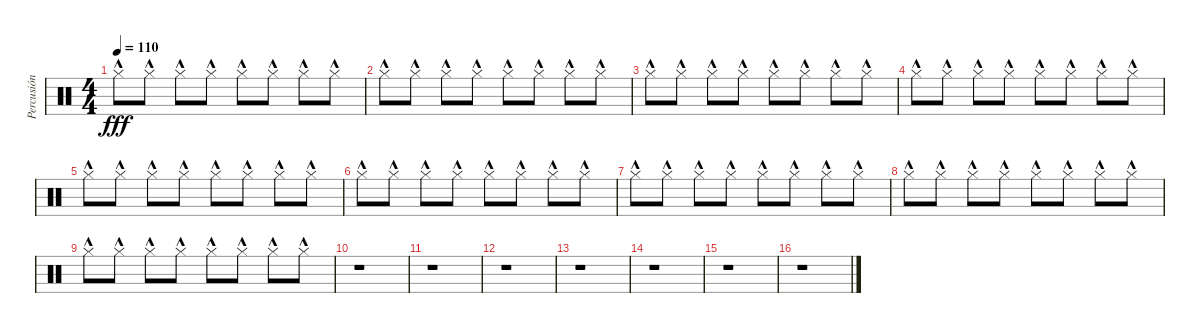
\track ("Percusión" "Percusión") {instrument percussion}
\staff {score}
\articulation defaults
\ts (4 4)
\tempo 110
\clef neutral
\ks c "Hi-Hat (closed)"{hac}.8{dy fff} "Hi-Hat (closed)"{hac}.8 "Hi-Hat (closed)"{hac}.8 "Hi-Hat (closed)"{hac}.8 "Hi-Hat (closed)"{hac}.8 "Hi-Hat (closed)"{hac}.8 "Hi-Hat (closed)"{hac}.8 "Hi-Hat (closed)"{hac}.8
|
"Hi-Hat (closed)"{hac}.8 "Hi-Hat (closed)"{hac}.8 "Hi-Hat (closed)"{hac}.8 "Hi-Hat (closed)"{hac}.8 "Hi-Hat (closed)"{hac}.8 "Hi-Hat (closed)"{hac}.8 "Hi-Hat (closed)"{hac}.8 "Hi-Hat (closed)"{hac}.8 |
"Hi-Hat (closed)"{hac}.8 "Hi-Hat (closed)"{hac}.8 "Hi-Hat (closed)"{hac}.8 "Hi-Hat (closed)"{hac}.8 "Hi-Hat (closed)"{hac}.8 "Hi-Hat (closed)"{hac}.8 "Hi-Hat (closed)"{hac}.8 "Hi-Hat (closed)"{hac}.8 |
"Hi-Hat (closed)"{hac}.8 "Hi-Hat (closed)"{hac}.8 "Hi-Hat (closed)"{hac}.8 "Hi-Hat (closed)"{hac}.8 "Hi-Hat (closed)"{hac}.8 "Hi-Hat (closed)"{hac}.8 "Hi-Hat (closed)"{hac}.8 "Hi-Hat (closed)"{hac}.8 |
"Hi-Hat (closed)"{hac}.8 "Hi-Hat (closed)"{hac}.8 "Hi-Hat (closed)"{hac}.8 "Hi-Hat (closed)"{hac}.8 "Hi-Hat (closed)"{hac}.8 "Hi-Hat (closed)"{hac}.8 "Hi-Hat (closed)"{hac}.8 "Hi-Hat (closed)"{hac}.8 |
"Hi-Hat (closed)"{hac}.8 "Hi-Hat (closed)"{hac}.8 "Hi-Hat (closed)"{hac}.8 "Hi-Hat (closed)"{hac}.8 "Hi-Hat (closed)"{hac}.8 "Hi-Hat (closed)"{hac}.8 "Hi-Hat (closed)"{hac}.8 "Hi-Hat (closed)"{hac}.8 |
"Hi-Hat (closed)"{hac}.8 "Hi-Hat (closed)"{hac}.8 "Hi-Hat (closed)"{hac}.8 "Hi-Hat (closed)"{hac}.8 "Hi-Hat (closed)"{hac}.8 "Hi-Hat (closed)"{hac}.8 "Hi-Hat (closed)"{hac}.8 "Hi-Hat (closed)"{hac}.8 |
"Hi-Hat (closed)"{hac}.8 "Hi-Hat (closed)"{hac}.8 "Hi-Hat (closed)"{hac}.8 "Hi-Hat (closed)"{hac}.8 "Hi-Hat (closed)"{hac}.8 "Hi-Hat (closed)"{hac}.8 "Hi-Hat (closed)"{hac}.8 "Hi-Hat (closed)"{hac}.8 |
"Hi-Hat (closed)"{hac}.8 "Hi-Hat (closed)"{hac}.8 "Hi-Hat (closed)"{hac}.8 "Hi-Hat (closed)"{hac}.8 "Hi-Hat (closed)"{hac}.8 "Hi-Hat (closed)"{hac}.8 "Hi-Hat (closed)"{hac}.8 "Hi-Hat (closed)"{hac}.8 |
r.1 |
r.1 |
r.1 |
r.1 |
r.1 |
r.1 |
r.1
